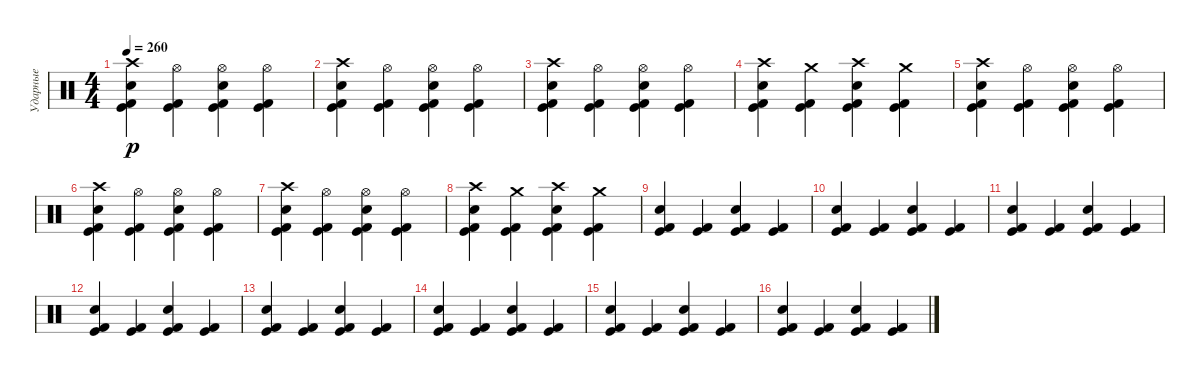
\track ("Ударные" "Ударные") {instrument percussion}
\staff {score}
\articulation defaults
\ts (4 4)
\tempo 260
\clef neutral
\ks c
("Kick (hit) 2" "Kick (hit)" "Snare (hit) 2" "Crash high (hit)").4{dy p} ("Kick (hit)" "Kick (hit) 2" "Hi-Hat (open)").4 ("Kick (hit) 2" "Kick (hit)" "Snare (hit) 2" "Hi-Hat (open)").4 ("Kick (hit)" "Kick (hit) 2" "Hi-Hat (open)").4 |
("Kick (hit) 2" "Kick (hit)" "Snare (hit) 2" "Crash high (hit)").4 ("Kick (hit)" "Kick (hit) 2" "Hi-Hat (open)").4 ("Kick (hit) 2" "Kick (hit)" "Snare (hit) 2" "Hi-Hat (open)").4 ("Kick (hit)" "Kick (hit) 2" "Hi-Hat (open)").4 |
("Kick (hit) 2" "Kick (hit)" "Snare (hit) 2" "Crash high (hit)").4 ("Kick (hit)" "Kick (hit) 2" "Hi-Hat (open)").4 ("Kick (hit) 2" "Kick (hit)" "Snare (hit) 2" "Hi-Hat (open)").4 ("Kick (hit)" "Kick (hit) 2" "Hi-Hat (open)").4 |
("Kick (hit) 2" "Kick (hit)" "Snare (hit) 2" "Crash high (hit)").4 ("Kick (hit)" "Kick (hit) 2" "Crash medium (hit)").4 ("Kick (hit) 2" "Kick (hit)" "Snare (hit) 2" "Crash high (hit)").4 ("Kick (hit)" "Kick (hit) 2" "Crash medium (hit)").4 |
("Kick (hit) 2" "Kick (hit)" "Snare (hit) 2" "Crash high (hit)").4 ("Kick (hit)" "Kick (hit) 2" "Hi-Hat (open)").4 ("Kick (hit) 2" "Kick (hit)" "Snare (hit) 2" "Hi-Hat (open)").4 ("Kick (hit)" "Kick (hit) 2" "Hi-Hat (open)").4 |
("Kick (hit) 2" "Kick (hit)" "Snare (hit) 2" "Crash high (hit)").4 ("Kick (hit)" "Kick (hit) 2" "Hi-Hat (open)").4 ("Kick (hit) 2" "Kick (hit)" "Snare (hit) 2" "Hi-Hat (open)").4 ("Kick (hit)" "Kick (hit) 2" "Hi-Hat (open)").4 |
("Kick (hit) 2" "Kick (hit)" "Snare (hit) 2" "Crash high (hit)").4 ("Kick (hit)" "Kick (hit) 2" "Hi-Hat (open)").4 ("Kick (hit) 2" "Kick (hit)" "Snare (hit) 2" "Hi-Hat (open)").4 ("Kick (hit)" "Kick (hit) 2" "Hi-Hat (open)").4 |
("Kick (hit) 2" "Kick (hit)" "Snare (hit) 2" "Crash high (hit)").4 ("Kick (hit)" "Kick (hit) 2" "Crash medium (hit)").4 ("Kick (hit) 2" "Kick (hit)" "Snare (hit) 2" "Crash high (hit)").4 ("Kick (hit)" "Kick (hit) 2" "Crash medium (hit)").4 |
("Kick (hit) 2" "Kick (hit)" "Snare (hit) 2").4 ("Kick (hit)" "Kick (hit) 2").4 ("Kick (hit) 2" "Kick (hit)" "Snare (hit) 2").4 ("Kick (hit)" "Kick (hit) 2").4 |
("Kick (hit) 2" "Kick (hit)" "Snare (hit) 2").4 ("Kick (hit)" "Kick (hit) 2").4 ("Kick (hit) 2" "Kick (hit)" "Snare (hit) 2").4 ("Kick (hit)" "Kick (hit) 2").4 |
("Kick (hit) 2" "Kick (hit)" "Snare (hit) 2").4 ("Kick (hit)" "Kick (hit) 2").4 ("Kick (hit) 2" "Kick (hit)" "Snare (hit) 2").4 ("Kick (hit)" "Kick (hit) 2").4 |
("Kick (hit) 2" "Kick (hit)" "Snare (hit) 2").4 ("Kick (hit)" "Kick (hit) 2").4 ("Kick (hit) 2" "Kick (hit)" "Snare (hit) 2").4 ("Kick (hit)" "Kick (hit) 2").4 |
("Kick (hit) 2" "Kick (hit)" "Snare (hit) 2").4 ("Kick (hit)" "Kick (hit) 2").4 ("Kick (hit) 2" "Kick (hit)" "Snare (hit) 2").4 ("Kick (hit)" "Kick (hit) 2").4 |
("Kick (hit) 2" "Kick (hit)" "Snare (hit) 2").4 ("Kick (hit)" "Kick (hit) 2").4 ("Kick (hit) 2" "Kick (hit)" "Snare (hit) 2").4 ("Kick (hit)" "Kick (hit) 2").4 |
("Kick (hit) 2" "Kick (hit)" "Snare (hit) 2").4 ("Kick (hit)" "Kick (hit) 2").4 ("Kick (hit) 2" "Kick (hit)" "Snare (hit) 2").4 ("Kick (hit)" "Kick (hit) 2").4 |
("Kick (hit) 2" "Kick (hit)" "Snare (hit) 2").4 ("Kick (hit)" "Kick (hit) 2").4 ("Kick (hit) 2" "Kick (hit)" "Snare (hit) 2").4 ("Kick (hit)" "Kick (hit) 2").4
